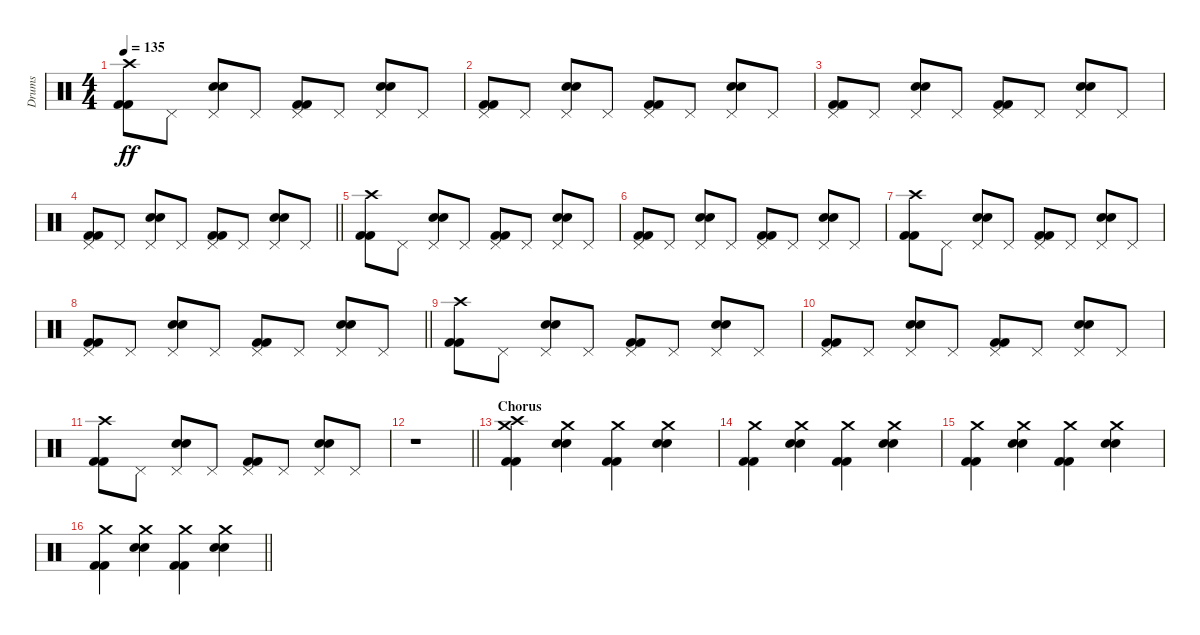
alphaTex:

\track ("Drums" "Drums") {instrument percussion}
\staff {score}
\articulation defaults
\ts (4 4)
\tempo 135
\clef neutral
\ks c
("Crash high (hit)" "Kick (hit) 2" "Kick (hit) 2").8{dy ff} "Pedal Hi-Hat (hit)".8 ("Pedal Hi-Hat (hit)" "Electric Snare (hit)" "Electric Snare (hit)").8 "Pedal Hi-Hat (hit)".8 ("Pedal Hi-Hat (hit)" "Kick (hit) 2" "Kick (hit) 2").8 "Pedal Hi-Hat (hit)".8 ("Pedal Hi-Hat (hit)" "Electric Snare (hit)" "Electric Snare (hit)").8 "Pedal Hi-Hat (hit)".8 |
("Pedal Hi-Hat (hit)" "Kick (hit) 2" "Kick (hit) 2").8 "Pedal Hi-Hat (hit)".8 ("Pedal Hi-Hat (hit)" "Electric Snare (hit)" "Electric Snare (hit)").8 "Pedal Hi-Hat (hit)".8 ("Pedal Hi-Hat (hit)" "Kick (hit) 2" "Kick (hit) 2").8 "Pedal Hi-Hat (hit)".8 ("Pedal Hi-Hat (hit)" "Electric Snare (hit)" "Electric Snare (hit)").8 "Pedal Hi-Hat (hit)".8 |
("Pedal Hi-Hat (hit)" "Kick (hit) 2" "Kick (hit) 2").8 "Pedal Hi-Hat (hit)".8 ("Pedal Hi-Hat (hit)" "Electric Snare (hit)" "Electric Snare (hit)").8 "Pedal Hi-Hat (hit)".8 ("Pedal Hi-Hat (hit)" "Kick (hit) 2" "Kick (hit) 2").8 "Pedal Hi-Hat (hit)".8 ("Pedal Hi-Hat (hit)" "Electric Snare (hit)" "Electric Snare (hit)").8 "Pedal Hi-Hat (hit)".8 |
\barLineRight lightlight
("Pedal Hi-Hat (hit)" "Kick (hit) 2" "Kick (hit) 2").8 "Pedal Hi-Hat (hit)".8 ("Pedal Hi-Hat (hit)" "Electric Snare (hit)" "Electric Snare (hit)").8 "Pedal Hi-Hat (hit)".8 ("Pedal Hi-Hat (hit)" "Kick (hit) 2" "Kick (hit) 2").8 "Pedal Hi-Hat (hit)".8 ("Pedal Hi-Hat (hit)" "Electric Snare (hit)" "Electric Snare (hit)").8 "Pedal Hi-Hat (hit)".8 |
("Crash high (hit)" "Kick (hit) 2" "Kick (hit) 2").8 "Pedal Hi-Hat (hit)".8 ("Pedal Hi-Hat (hit)" "Electric Snare (hit)" "Electric Snare (hit)").8 "Pedal Hi-Hat (hit)".8 ("Pedal Hi-Hat (hit)" "Kick (hit) 2" "Kick (hit) 2").8 "Pedal Hi-Hat (hit)".8 ("Pedal Hi-Hat (hit)" "Electric Snare (hit)" "Electric Snare (hit)").8 "Pedal Hi-Hat (hit)".8 |
("Pedal Hi-Hat (hit)" "Kick (hit) 2" "Kick (hit) 2").8 "Pedal Hi-Hat (hit)".8 ("Pedal Hi-Hat (hit)" "Electric Snare (hit)" "Electric Snare (hit)").8 "Pedal Hi-Hat (hit)".8 ("Pedal Hi-Hat (hit)" "Kick (hit) 2" "Kick (hit) 2").8 "Pedal Hi-Hat (hit)".8 ("Pedal Hi-Hat (hit)" "Electric Snare (hit)" "Electric Snare (hit)").8 "Pedal Hi-Hat (hit)".8 |
("Crash high (hit)" "Kick (hit) 2" "Kick (hit) 2").8 "Pedal Hi-Hat (hit)".8 ("Pedal Hi-Hat (hit)" "Electric Snare (hit)" "Electric Snare (hit)").8 "Pedal Hi-Hat (hit)".8 ("Pedal Hi-Hat (hit)" "Kick (hit) 2" "Kick (hit) 2").8 "Pedal Hi-Hat (hit)".8 ("Pedal Hi-Hat (hit)" "Electric Snare (hit)" "Electric Snare (hit)").8 "Pedal Hi-Hat (hit)".8 |
\barLineRight lightlight
("Pedal Hi-Hat (hit)" "Kick (hit) 2" "Kick (hit) 2").8 "Pedal Hi-Hat (hit)".8 ("Pedal Hi-Hat (hit)" "Electric Snare (hit)" "Electric Snare (hit)").8 "Pedal Hi-Hat (hit)".8 ("Pedal Hi-Hat (hit)" "Kick (hit) 2" "Kick (hit) 2").8 "Pedal Hi-Hat (hit)".8 ("Pedal Hi-Hat (hit)" "Electric Snare (hit)" "Electric Snare (hit)").8 "Pedal Hi-Hat (hit)".8 |
("Crash high (hit)" "Kick (hit) 2" "Kick (hit) 2").8 "Pedal Hi-Hat (hit)".8 ("Pedal Hi-Hat (hit)" "Electric Snare (hit)" "Electric Snare (hit)").8 "Pedal Hi-Hat (hit)".8 ("Pedal Hi-Hat (hit)" "Kick (hit) 2" "Kick (hit) 2").8 "Pedal Hi-Hat (hit)".8 ("Pedal Hi-Hat (hit)" "Electric Snare (hit)" "Electric Snare (hit)").8 "Pedal Hi-Hat (hit)".8 |
("Pedal Hi-Hat (hit)" "Kick (hit) 2" "Kick (hit) 2").8 "Pedal Hi-Hat (hit)".8 ("Pedal Hi-Hat (hit)" "Electric Snare (hit)" "Electric Snare (hit)").8 "Pedal Hi-Hat (hit)".8 ("Pedal Hi-Hat (hit)" "Kick (hit) 2" "Kick (hit) 2").8 "Pedal Hi-Hat (hit)".8 ("Pedal Hi-Hat (hit)" "Electric Snare (hit)" "Electric Snare (hit)").8 "Pedal Hi-Hat (hit)".8 |
("Crash high (hit)" "Kick (hit) 2" "Kick (hit) 2").8 "Pedal Hi-Hat (hit)".8 ("Pedal Hi-Hat (hit)" "Electric Snare (hit)" "Electric Snare (hit)").8 "Pedal Hi-Hat (hit)".8 ("Pedal Hi-Hat (hit)" "Kick (hit) 2" "Kick (hit) 2").8 "Pedal Hi-Hat (hit)".8 ("Pedal Hi-Hat (hit)" "Electric Snare (hit)" "Electric Snare (hit)").8 "Pedal Hi-Hat (hit)".8 |
\barLineRight lightlight
r.1 |
\section ("" "Chorus")
("Crash high (hit)" "Crash medium (hit)" "Kick (hit) 2" "Kick (hit) 2").4 ("Crash medium (hit)" "Electric Snare (hit)" "Electric Snare (hit)").4 ("Crash medium (hit)" "Kick (hit) 2" "Kick (hit) 2").4 ("Crash medium (hit)" "Electric Snare (hit)" "Electric Snare (hit)").4 |
("Crash medium (hit)" "Kick (hit) 2" "Kick (hit) 2").4 ("Crash medium (hit)" "Electric Snare (hit)" "Electric Snare (hit)").4 ("Crash medium (hit)" "Kick (hit) 2" "Kick (hit) 2").4 ("Crash medium (hit)" "Electric Snare (hit)" "Electric Snare (hit)").4 |
("Crash medium (hit)" "Kick (hit) 2" "Kick (hit) 2").4 ("Crash medium (hit)" "Electric Snare (hit)" "Electric Snare (hit)").4 ("Crash medium (hit)" "Kick (hit) 2" "Kick (hit) 2").4 ("Crash medium (hit)" "Electric Snare (hit)" "Electric Snare (hit)").4 |
\barLineRight lightlight
("Crash medium (hit)" "Kick (hit) 2" "Kick (hit) 2").4 ("Crash medium (hit)" "Electric Snare (hit)" "Electric Snare (hit)").4 ("Crash medium (hit)" "Kick (hit) 2" "Kick (hit) 2").4 ("Crash medium (hit)" "Electric Snare (hit)" "Electric Snare (hit)").4
